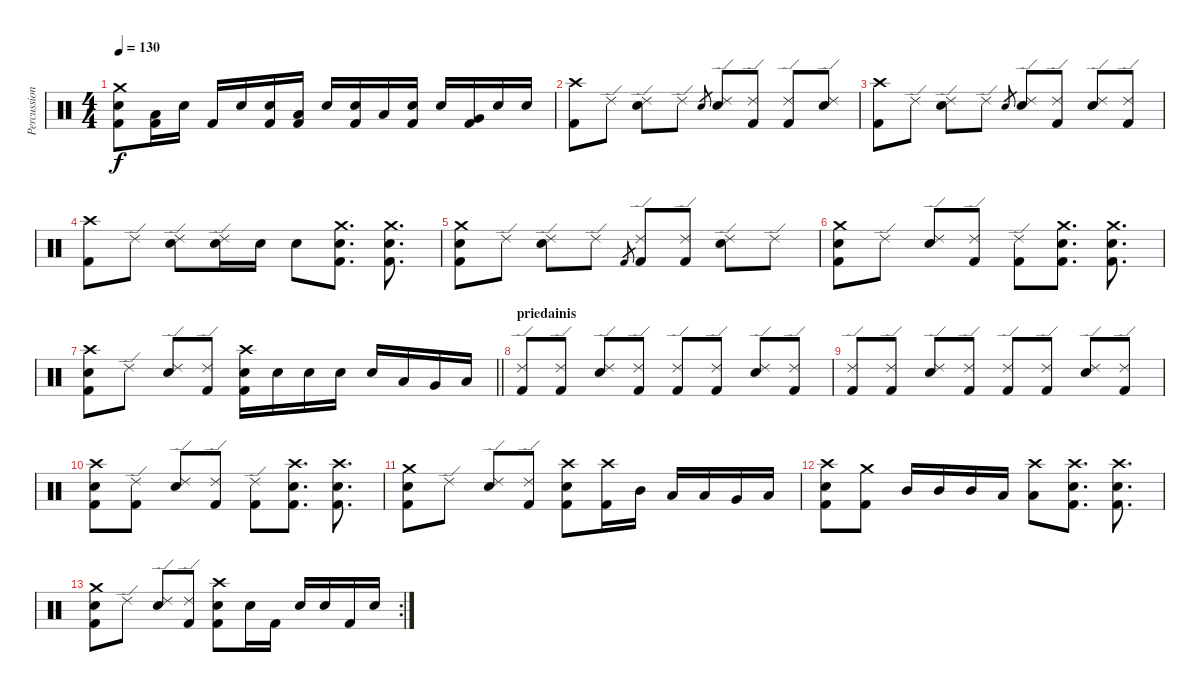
\track ("Percussion" "Percussion") {instrument percussion}
\staff {score}
\articulation defaults
\ts (4 4)
\tempo 130
\clef neutral
\ks c
("Crash medium (hit)" "Snare (hit) 2" "Kick (hit) 2").8{dy f} ("Low Tom (hit)" "Kick (hit) 2").16 "Snare (hit) 2".16 "Kick (hit) 2".16 "Snare (hit) 2".16 ("Snare (hit) 2" "Kick (hit) 2").16 ("Low Floor Tom (hit)" "Kick (hit) 2").16 "Snare (hit) 2".16 ("Snare (hit) 2" "Kick (hit) 2").16 "Low Tom (hit)".16 ("Snare (hit) 2" "Kick (hit) 2").16 "Snare (hit) 2".16 ("Very Low Tom (hit)" "Kick (hit) 2").16 "Snare (hit) 2".16 "Snare (hit) 2".16 |
("Crash high (hit)" "Kick (hit) 2").8 "Ride (edge) 2".8 ("Ride (edge) 2" "Snare (hit) 2").8 "Ride (edge) 2".8 "Snare (hit) 2".8{gr} ("Ride (edge) 2" "Snare (hit) 2").8 ("Ride (edge) 2" "Kick (hit) 2").8 ("Ride (edge) 2" "Kick (hit) 2").8 ("Ride (edge) 2" "Snare (hit) 2").8 |
("Crash high (hit)" "Kick (hit) 2").8 "Ride (edge) 2".8 ("Ride (edge) 2" "Snare (hit) 2").8 "Ride (edge) 2".8 "Snare (hit) 2".8{gr} ("Ride (edge) 2" "Snare (hit) 2").8 ("Ride (edge) 2" "Kick (hit) 2").8 ("Ride (edge) 2" "Snare (hit) 2").8 ("Ride (edge) 2" "Kick (hit) 2").8 |
("Crash high (hit)" "Kick (hit) 2").8 "Ride (edge) 2".8 ("Ride (edge) 2" "Snare (hit) 2").8 ("Ride (edge) 2" "Snare (hit) 2").16 "Snare (hit) 2".16 "Snare (hit) 2".8 ("Crash medium (hit)" "Snare (hit) 2" "Kick (hit) 2").8{d} ("Crash medium (hit)" "Snare (hit) 2" "Kick (hit) 2").8{d} |
("Crash medium (hit)" "Snare (hit) 2" "Kick (hit) 2").8 "Ride (edge) 2".8 ("Ride (edge) 2" "Snare (hit) 2").8 "Ride (edge) 2".8 "Kick (hit) 2".8{gr} ("Ride (edge) 2" "Kick (hit) 2").8 ("Ride (edge) 2" "Kick (hit) 2").8 ("Ride (edge) 2" "Snare (hit) 2").8 "Ride (edge) 2".8 |
("Crash medium (hit)" "Snare (hit) 2" "Kick (hit) 2").8 "Ride (edge) 2".8 ("Ride (edge) 2" "Snare (hit) 2").8 ("Ride (edge) 2" "Kick (hit) 2").8 ("Ride (edge) 2" "Kick (hit) 2").8 ("Crash medium (hit)" "Snare (hit) 2" "Kick (hit) 2").8{d} ("Crash medium (hit)" "Snare (hit) 2" "Kick (hit) 2").8{d} |
\barLineRight lightlight
("Crash high (hit)" "Snare (hit) 2" "Kick (hit) 2").8 "Ride (edge) 2".8 ("Ride (edge) 2" "Snare (hit) 2").8 ("Ride (edge) 2" "Kick (hit) 2").8 ("Crash high (hit)" "Snare (hit) 2" "Kick (hit) 2").16 "Snare (hit) 2".16 "Snare (hit) 2".16 "Snare (hit) 2".16 "Snare (hit) 2".16 "Low Tom (hit)".16 "Very Low Tom (hit)".16 "Low Floor Tom (hit)".16 |
\section ("" "priedainis")
("Ride (edge) 2" "Kick (hit) 2").8 ("Ride (edge) 2" "Kick (hit) 2").8 ("Ride (edge) 2" "Snare (hit) 2").8 ("Ride (edge) 2" "Kick (hit) 2").8 ("Ride (edge) 2" "Kick (hit) 2").8 ("Ride (edge) 2" "Kick (hit) 2").8 ("Ride (edge) 2" "Snare (hit) 2").8 ("Ride (edge) 2" "Kick (hit) 2").8 |
("Ride (edge) 2" "Kick (hit) 2").8 ("Ride (edge) 2" "Kick (hit) 2").8 ("Ride (edge) 2" "Snare (hit) 2").8 ("Ride (edge) 2" "Kick (hit) 2").8 ("Ride (edge) 2" "Kick (hit) 2").8 ("Ride (edge) 2" "Kick (hit) 2").8 ("Ride (edge) 2" "Snare (hit) 2").8 ("Ride (edge) 2" "Kick (hit) 2").8 |
("Crash high (hit)" "Snare (hit) 2" "Kick (hit) 2").8 ("Ride (edge) 2" "Kick (hit) 2").8 ("Ride (edge) 2" "Snare (hit) 2").8 ("Ride (edge) 2" "Kick (hit) 2").8 ("Ride (edge) 2" "Kick (hit) 2").8 ("Crash high (hit)" "Snare (hit) 2" "Kick (hit) 2").8{d} ("Crash high (hit)" "Snare (hit) 2" "Kick (hit) 2").8{d} |
("Crash medium (hit)" "Snare (hit) 2" "Kick (hit) 2").8 "Ride (edge) 2".8 ("Ride (edge) 2" "Snare (hit) 2").8 ("Ride (edge) 2" "Kick (hit) 2").8 ("Crash high (hit)" "Snare (hit) 2" "Kick (hit) 2").8 ("Crash high (hit)" "Kick (hit) 2").16 "Mid Tom (hit)".16 "Low Tom (hit)".16 "Low Tom (hit)".16 "Very Low Tom (hit)".16 "Low Floor Tom (hit)".16 |
("Crash high (hit)" "Snare (hit) 2" "Kick (hit) 2").8 ("Crash medium (hit)" "Kick (hit) 2").8 "Mid Tom (hit)".16 "Mid Tom (hit)".16 "Mid Tom (hit)".16 "Low Tom (hit)".16 ("Crash high (hit)" "Low Tom (hit)").8 ("Crash high (hit)" "Snare (hit) 2" "Kick (hit) 2").8{d} ("Crash high (hit)" "Snare (hit) 2" "Kick (hit) 2").8{d} |
\rc 2
("Crash medium (hit)" "Snare (hit) 2" "Kick (hit) 2").8 "Ride (edge) 2".8 ("Ride (edge) 2" "Snare (hit) 2").8 ("Ride (edge) 2" "Kick (hit) 2").8 ("Crash high (hit)" "Snare (hit) 2" "Kick (hit) 2").8 "Snare (hit) 2".16 "Kick (hit) 2".16 "Snare (hit) 2".16 "Snare (hit) 2".16 "Kick (hit) 2".16 "Snare (hit) 2".16
